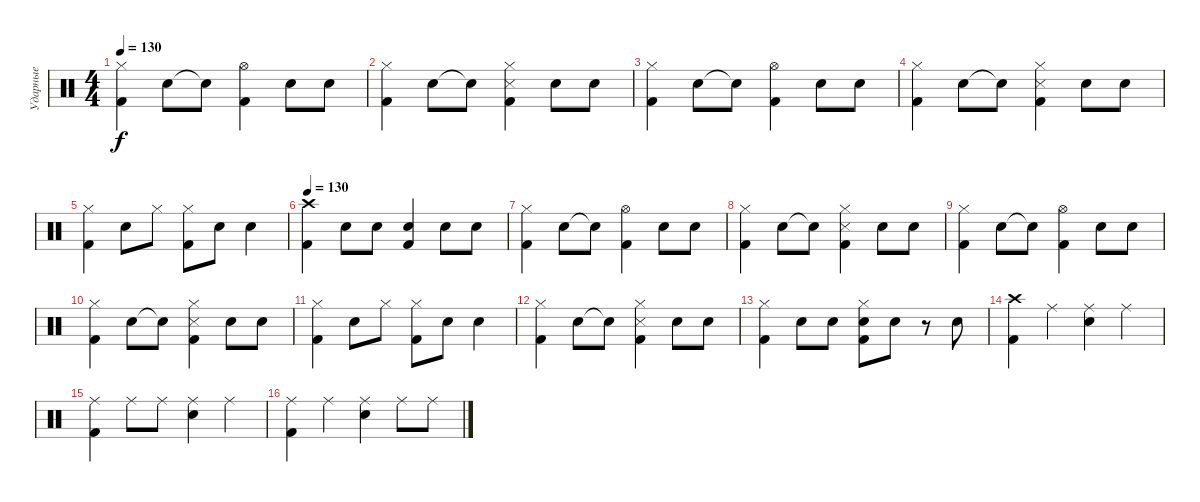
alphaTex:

\track ("Ударные" "Ударные") {instrument percussion}
\staff {score}
\articulation defaults
\ts (4 4)
\tempo 130
\clef neutral
\ks c
("Hi-Hat (closed)" "Kick (hit) 2").4{dy f} "Snare (hit) 2".8 "Snare (hit) 2"{t}.8 ("Hi-Hat (open)" "Kick (hit) 2").4 "Snare (hit) 2".8 "Snare (hit) 2".8 |
("Hi-Hat (closed)" "Kick (hit) 2").4 "Snare (hit) 2".8 "Snare (hit) 2"{t}.8 ("Hi-Hat (closed)" "Snare (side stick) 3" "Kick (hit) 2").4 "Snare (hit) 2".8 "Snare (hit) 2".8 |
("Hi-Hat (closed)" "Kick (hit) 2").4 "Snare (hit) 2".8 "Snare (hit) 2"{t}.8 ("Hi-Hat (open)" "Kick (hit) 2").4 "Snare (hit) 2".8 "Snare (hit) 2".8 |
("Hi-Hat (closed)" "Kick (hit) 2").4 "Snare (hit) 2".8 "Snare (hit) 2"{t}.8 ("Hi-Hat (closed)" "Snare (side stick) 3" "Kick (hit) 2").4 "Snare (hit) 2".8 "Snare (hit) 2".8 |
("Hi-Hat (closed)" "Kick (hit) 2").4 "Snare (hit) 2".8 "Hi-Hat (closed)".8 ("Hi-Hat (closed)" "Kick (hit) 2").8 "Snare (hit) 2".8 "Snare (hit) 2".4 |
\tempo 130
("Crash high (hit)" "Kick (hit) 2").4 "Snare (hit) 2".8 "Snare (hit) 2".8 ("Snare (hit) 2" "Kick (hit) 2").4 "Snare (hit) 2".8 "Snare (hit) 2".8 |
("Hi-Hat (closed)" "Kick (hit) 2").4 "Snare (hit) 2".8 "Snare (hit) 2"{t}.8 ("Hi-Hat (open)" "Kick (hit) 2").4 "Snare (hit) 2".8 "Snare (hit) 2".8 |
("Hi-Hat (closed)" "Kick (hit) 2").4 "Snare (hit) 2".8 "Snare (hit) 2"{t}.8 ("Hi-Hat (closed)" "Snare (side stick) 3" "Kick (hit) 2").4 "Snare (hit) 2".8 "Snare (hit) 2".8 |
("Hi-Hat (closed)" "Kick (hit) 2").4 "Snare (hit) 2".8 "Snare (hit) 2"{t}.8 ("Hi-Hat (open)" "Kick (hit) 2").4 "Snare (hit) 2".8 "Snare (hit) 2".8 |
("Hi-Hat (closed)" "Kick (hit) 2").4 "Snare (hit) 2".8 "Snare (hit) 2"{t}.8 ("Hi-Hat (closed)" "Snare (side stick) 3" "Kick (hit) 2").4 "Snare (hit) 2".8 "Snare (hit) 2".8 |
("Hi-Hat (closed)" "Kick (hit) 2").4 "Snare (hit) 2".8 "Hi-Hat (closed)".8 ("Hi-Hat (closed)" "Kick (hit) 2").8 "Snare (hit) 2".8 "Snare (hit) 2".4 |
("Hi-Hat (closed)" "Kick (hit) 2").4 "Snare (hit) 2".8 "Snare (hit) 2"{t}.8 ("Hi-Hat (closed)" "Snare (side stick) 3" "Kick (hit) 2").4 "Snare (hit) 2".8 "Snare (hit) 2".8 |
("Hi-Hat (closed)" "Kick (hit) 2").4 "Snare (hit) 2".8 "Snare (hit) 2".8 ("Hi-Hat (closed)" "Snare (hit) 2" "Kick (hit) 2").8 "Snare (hit) 2".8 r.8 "Snare (hit) 2".8 |
("Crash high (hit)" "Kick (hit) 2").4 "Ride (middle)".4 ("Ride (middle)" "Snare (hit) 2").4 "Ride (middle)".4 |
("Ride (middle)" "Kick (hit) 2").4 "Ride (middle)".8 "Ride (middle)".8 ("Ride (middle)" "Snare (hit) 2").4 "Ride (middle)".4 |
("Ride (middle)" "Kick (hit) 2").4 "Ride (middle)".4 ("Ride (middle)" "Snare (hit) 2").4 "Ride (middle)".8 "Ride (middle)".8
